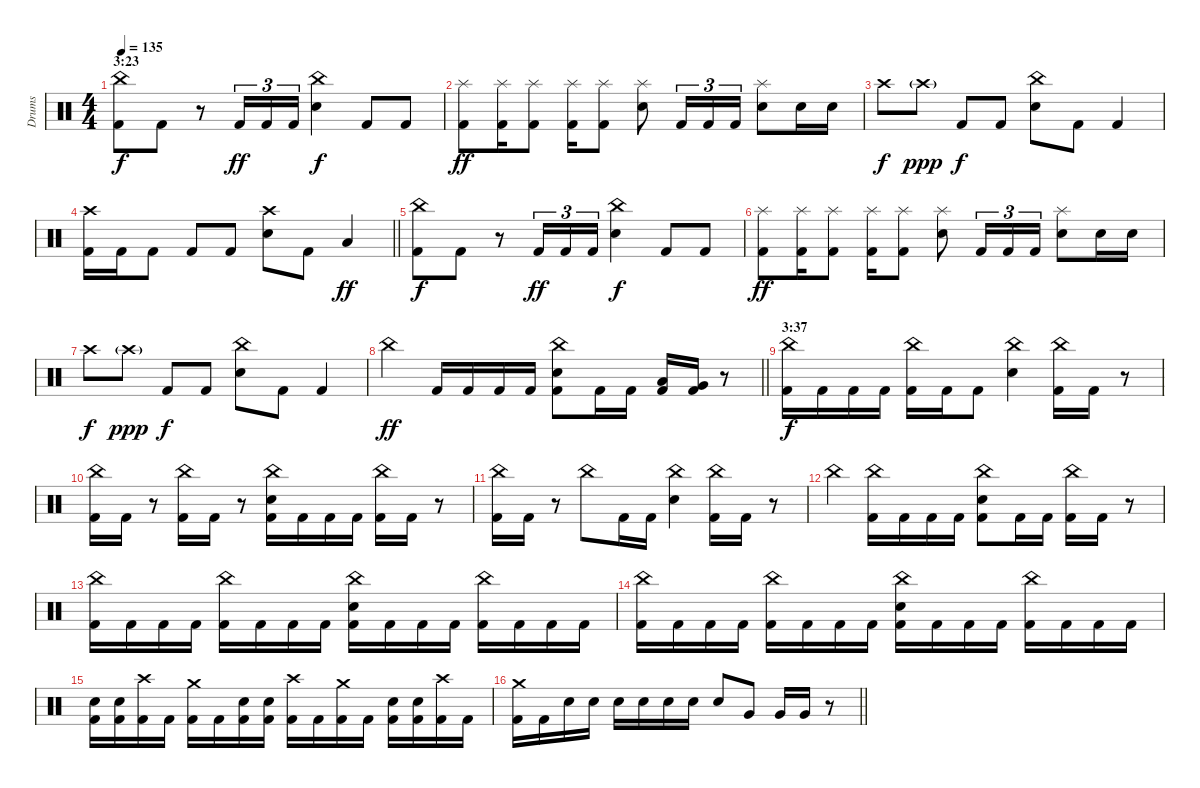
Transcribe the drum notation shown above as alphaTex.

\track ("Drums" "Drums") {instrument percussion}
\staff {score}
\articulation defaults
\ts (4 4)
\section ("" "3:23")
\tempo 135
\clef neutral
\ks c
("China (hit)" "Kick (hit) 2").8{dy f} "Kick (hit) 2".8 r.8 "Kick (hit) 2".16{tu (3 2) dy ff} "Kick (hit) 2".16{tu (3 2)} "Kick (hit) 2".16{tu (3 2)} ("China (hit)" "Electric Snare (hit)").4{dy f} "Kick (hit) 2".8 "Kick (hit) 2".8 |
("Splash (hit)" "Kick (hit) 2").8{dy ff} ("Splash (hit)" "Kick (hit) 2").16 ("Splash (hit)" "Kick (hit) 2").8 ("Splash (hit)" "Kick (hit) 2").16 ("Splash (hit)" "Kick (hit) 2").8 ("Splash (hit)" "Electric Snare (hit)").8 "Kick (hit) 2".16{tu (3 2)} "Kick (hit) 2".16{tu (3 2)} "Kick (hit) 2".16{tu (3 2)} ("Splash (hit)" "Electric Snare (hit)").8 "Electric Snare (hit)".16 "Electric Snare (hit)".16 |
"Crash high (hit)".8{dy f} "Crash high (hit)"{g}.8{dy ppp} "Kick (hit) 2".8{dy f} "Kick (hit) 2".8 ("China (hit)" "Electric Snare (hit)").8 "Kick (hit) 2".8 "Kick (hit) 2".4 |
\barLineRight lightlight
("Crash high (hit)" "Kick (hit) 2").16 "Kick (hit) 2".16 "Kick (hit) 2".8 "Kick (hit) 2".8 "Kick (hit) 2".8 ("Crash high (hit)" "Electric Snare (hit)").8 "Kick (hit) 2".8 "Low Tom (hit)".4{dy ff} |
("China (hit)" "Kick (hit) 2").8{dy f} "Kick (hit) 2".8 r.8 "Kick (hit) 2".16{tu (3 2) dy ff} "Kick (hit) 2".16{tu (3 2)} "Kick (hit) 2".16{tu (3 2)} ("China (hit)" "Electric Snare (hit)").4{dy f} "Kick (hit) 2".8 "Kick (hit) 2".8 |
("Splash (hit)" "Kick (hit) 2").8{dy ff} ("Splash (hit)" "Kick (hit) 2").16 ("Splash (hit)" "Kick (hit) 2").8 ("Splash (hit)" "Kick (hit) 2").16 ("Splash (hit)" "Kick (hit) 2").8 ("Splash (hit)" "Electric Snare (hit)").8 "Kick (hit) 2".16{tu (3 2)} "Kick (hit) 2".16{tu (3 2)} "Kick (hit) 2".16{tu (3 2)} ("Splash (hit)" "Electric Snare (hit)").8 "Electric Snare (hit)".16 "Electric Snare (hit)".16 |
"Crash high (hit)".8{dy f} "Crash high (hit)"{g}.8{dy ppp} "Kick (hit) 2".8{dy f} "Kick (hit) 2".8 ("China (hit)" "Electric Snare (hit)").8 "Kick (hit) 2".8 "Kick (hit) 2".4 |
\barLineRight lightlight "China (hit)".4{dy ff} "Kick (hit) 2".16 "Kick (hit) 2".16 "Kick (hit) 2".16 "Kick (hit) 2".16
("China (hit)" "Electric Snare (hit)" "Kick (hit) 2").8 "Kick (hit) 2".16 "Kick (hit) 2".16 ("Low Tom (hit)" "Kick (hit) 2").16 ("Very Low Tom (hit)" "Kick (hit) 2").16 r.8 |
\section ("" "3:37")
("China (hit)" "Kick (hit) 2").16{dy f} "Kick (hit) 2".16 "Kick (hit) 2".16 "Kick (hit) 2".16 ("China (hit)" "Kick (hit) 2").16 "Kick (hit) 2".16 "Kick (hit) 2".8 ("China (hit)" "Electric Snare (hit)").4 ("China (hit)" "Kick (hit) 2").16 "Kick (hit) 2".16 r.8 |
("China (hit)" "Kick (hit) 2").16 "Kick (hit) 2".16 r.8 ("China (hit)" "Kick (hit) 2").16 "Kick (hit) 2".16 r.8 ("China (hit)" "Electric Snare (hit)" "Kick (hit) 2").16 "Kick (hit) 2".16 "Kick (hit) 2".16 "Kick (hit) 2".16 ("China (hit)" "Kick (hit) 2").16 "Kick (hit) 2".16 r.8 |
("China (hit)" "Kick (hit) 2").16 "Kick (hit) 2".16 r.8 "China (hit)".8 "Kick (hit) 2".16 "Kick (hit) 2".16 ("China (hit)" "Electric Snare (hit)").4 ("China (hit)" "Kick (hit) 2").16 "Kick (hit) 2".16 r.8 |
"China (hit)".4 ("China (hit)" "Kick (hit) 2").16 "Kick (hit) 2".16 "Kick (hit) 2".16 "Kick (hit) 2".16 ("China (hit)" "Electric Snare (hit)" "Kick (hit) 2").8 "Kick (hit) 2".16 "Kick (hit) 2".16 ("China (hit)" "Kick (hit) 2").16 "Kick (hit) 2".16 r.8 |
("China (hit)" "Kick (hit) 2").16 "Kick (hit) 2".16 "Kick (hit) 2".16 "Kick (hit) 2".16 ("China (hit)" "Kick (hit) 2").16 "Kick (hit) 2".16 "Kick (hit) 2".16 "Kick (hit) 2".16 ("China (hit)" "Electric Snare (hit)" "Kick (hit) 2").16 "Kick (hit) 2".16 "Kick (hit) 2".16 "Kick (hit) 2".16 ("China (hit)" "Kick (hit) 2").16 "Kick (hit) 2".16 "Kick (hit) 2".16 "Kick (hit) 2".16 |
("China (hit)" "Kick (hit) 2").16 "Kick (hit) 2".16 "Kick (hit) 2".16 "Kick (hit) 2".16 ("China (hit)" "Kick (hit) 2").16 "Kick (hit) 2".16 "Kick (hit) 2".16 "Kick (hit) 2".16 ("China (hit)" "Electric Snare (hit)" "Kick (hit) 2").16 "Kick (hit) 2".16 "Kick (hit) 2".16 "Kick (hit) 2".16 ("China (hit)" "Kick (hit) 2").16 "Kick (hit) 2".16 "Kick (hit) 2".16 "Kick (hit) 2".16 |
("Electric Snare (hit)" "Kick (hit) 2").16 ("Electric Snare (hit)" "Kick (hit) 2").16 ("Crash high (hit)" "Kick (hit) 2").16 "Kick (hit) 2".16 ("Crash medium (hit)" "Kick (hit) 2").16 "Kick (hit) 2".16 ("Electric Snare (hit)" "Kick (hit) 2").16 ("Electric Snare (hit)" "Kick (hit) 2").16 ("Crash high (hit)" "Kick (hit) 2").16 "Kick (hit) 2".16 ("Crash medium (hit)" "Kick (hit) 2").16 "Kick (hit) 2".16 ("Electric Snare (hit)" "Kick (hit) 2").16 ("Electric Snare (hit)" "Kick (hit) 2").16 ("Crash high (hit)" "Kick (hit) 2").16 "Kick (hit) 2".16 |
\barLineRight lightlight
("Crash medium (hit)" "Kick (hit) 2").16 "Kick (hit) 2".16 "Electric Snare (hit)".16 "Electric Snare (hit)".16 "Electric Snare (hit)".16 "Electric Snare (hit)".16 "Electric Snare (hit)".16 "Electric Snare (hit)".16 "Electric Snare (hit)".8 "Very Low Tom (hit)".8 "Very Low Tom (hit)".16 "Very Low Tom (hit)".16 r.8
